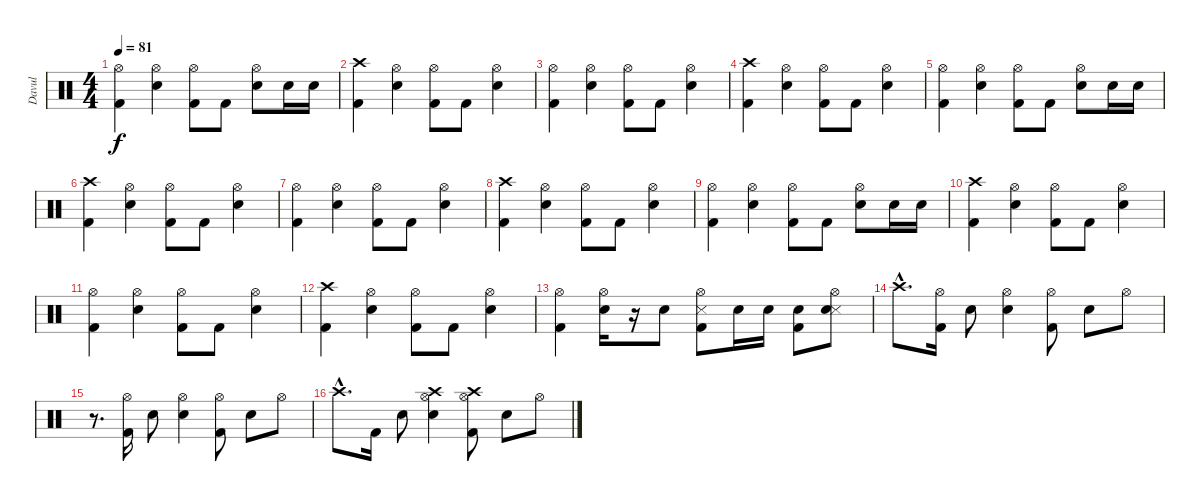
\track ("Davul" "Davul") {instrument percussion}
\staff {score}
\articulation defaults
\ts (4 4)
\tempo 81
\clef neutral
\ks c
("Hi-Hat (open)" "Kick (hit) 2").4{dy f} ("Hi-Hat (open)" "Snare (hit) 2").4 ("Hi-Hat (open)" "Kick (hit) 2").8 "Kick (hit) 2".8 ("Hi-Hat (open)" "Snare (hit) 2").8 "Snare (hit) 2".16 "Snare (hit) 2".16 |
("Crash high (hit)" "Kick (hit) 2").4 ("Hi-Hat (open)" "Snare (hit) 2").4 ("Hi-Hat (open)" "Kick (hit) 2").8 "Kick (hit) 2".8 ("Hi-Hat (open)" "Snare (hit) 2").4 |
("Hi-Hat (open)" "Kick (hit) 2").4 ("Hi-Hat (open)" "Snare (hit) 2").4 ("Hi-Hat (open)" "Kick (hit) 2").8 "Kick (hit) 2".8 ("Hi-Hat (open)" "Snare (hit) 2").4 |
("Crash high (hit)" "Kick (hit) 2").4 ("Hi-Hat (open)" "Snare (hit) 2").4 ("Hi-Hat (open)" "Kick (hit) 2").8 "Kick (hit) 2".8 ("Hi-Hat (open)" "Snare (hit) 2").4 |
("Hi-Hat (open)" "Kick (hit) 2").4 ("Hi-Hat (open)" "Snare (hit) 2").4 ("Hi-Hat (open)" "Kick (hit) 2").8 "Kick (hit) 2".8 ("Hi-Hat (open)" "Snare (hit) 2").8 "Snare (hit) 2".16 "Snare (hit) 2".16 |
("Crash high (hit)" "Kick (hit) 2").4 ("Hi-Hat (open)" "Snare (hit) 2").4 ("Hi-Hat (open)" "Kick (hit) 2").8 "Kick (hit) 2".8 ("Hi-Hat (open)" "Snare (hit) 2").4 |
("Hi-Hat (open)" "Kick (hit) 2").4 ("Hi-Hat (open)" "Snare (hit) 2").4 ("Hi-Hat (open)" "Kick (hit) 2").8 "Kick (hit) 2".8 ("Hi-Hat (open)" "Snare (hit) 2").4 |
("Crash high (hit)" "Kick (hit) 2").4 ("Hi-Hat (open)" "Snare (hit) 2").4 ("Hi-Hat (open)" "Kick (hit) 2").8 "Kick (hit) 2".8 ("Hi-Hat (open)" "Snare (hit) 2").4 |
("Hi-Hat (open)" "Kick (hit) 2").4 ("Hi-Hat (open)" "Snare (hit) 2").4 ("Hi-Hat (open)" "Kick (hit) 2").8 "Kick (hit) 2".8 ("Hi-Hat (open)" "Snare (hit) 2").8 "Snare (hit) 2".16 "Snare (hit) 2".16 |
("Crash high (hit)" "Kick (hit) 2").4 ("Hi-Hat (open)" "Snare (hit) 2").4 ("Hi-Hat (open)" "Kick (hit) 2").8 "Kick (hit) 2".8 ("Hi-Hat (open)" "Snare (hit) 2").4 |
("Hi-Hat (open)" "Kick (hit) 2").4 ("Hi-Hat (open)" "Snare (hit) 2").4 ("Hi-Hat (open)" "Kick (hit) 2").8 "Kick (hit) 2".8 ("Hi-Hat (open)" "Snare (hit) 2").4 |
("Crash high (hit)" "Kick (hit) 2").4 ("Hi-Hat (open)" "Snare (hit) 2").4 ("Hi-Hat (open)" "Kick (hit) 2").8 "Kick (hit) 2".8 ("Hi-Hat (open)" "Snare (hit) 2").4 |
("Hi-Hat (open)" "Kick (hit) 2").4 ("Hi-Hat (open)" "Snare (hit) 2").16 r.16 "Snare (hit) 2".8 ("Hi-Hat (open)" "Snare (side stick) 3" "Kick (hit) 2").8 "Snare (hit) 2".16 "Snare (hit) 2".16 ("Snare (hit) 2" "Kick (hit) 2").8 ("Hi-Hat (open)" "Snare (side stick) 3" "Snare (hit) 2").8 |
"Crash high (hit)"{hac}.8{d} ("Hi-Hat (open)" "Kick (hit) 2").16 "Snare (hit) 2".8 ("Hi-Hat (open)" "Snare (hit) 2").4 ("Hi-Hat (open)" "Kick (hit) 2").8 "Snare (hit) 2".8 "Hi-Hat (open)".8 |
r.8{d} ("Hi-Hat (open)" "Kick (hit) 2").16 "Snare (hit) 2".8 ("Hi-Hat (open)" "Snare (hit) 2").4 ("Hi-Hat (open)" "Kick (hit) 2").8 "Snare (hit) 2".8 "Hi-Hat (open)".8 |
"Crash high (hit)"{hac}.8{d} "Kick (hit) 2".16 "Snare (hit) 2".8 ("Hi-Hat (open)" "Snare (hit) 2" "Crash high (hit)").4 ("Hi-Hat (open)" "Crash high (hit)" "Kick (hit) 2").8 "Snare (hit) 2".8 "Hi-Hat (open)".8
